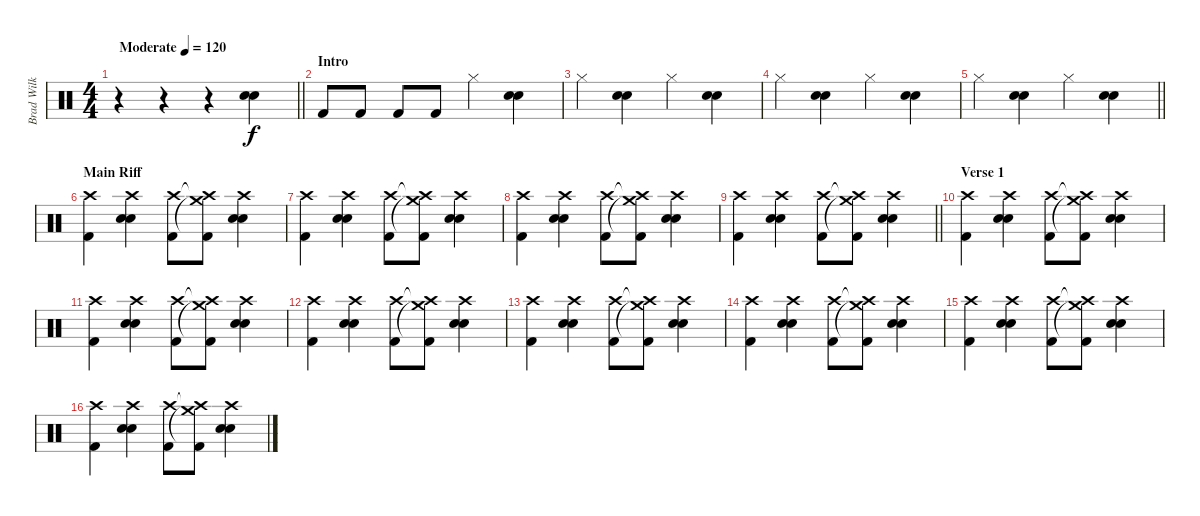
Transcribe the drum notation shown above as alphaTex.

\track ("Brad Wilk" "Brad Wilk") {instrument percussion}
\staff {score}
\articulation defaults
\ts (4 4)
\tempo (120 "Moderate")
\clef neutral
\barLineRight lightlight
\ks c
r.4{dy f} r.4 r.4 ("Electric Snare (hit)" "Snare (hit) 2").4 |
\section ("" "Intro")
"Kick (hit) 2".8 "Kick (hit) 2".8 "Kick (hit) 2".8 "Kick (hit) 2".8 "Hi-Hat (closed)".4 ("Electric Snare (hit)" "Snare (hit) 2").4 |
"Hi-Hat (closed)".4 ("Electric Snare (hit)" "Snare (hit) 2").4 "Hi-Hat (closed)".4 ("Electric Snare (hit)" "Snare (hit) 2").4 |
"Hi-Hat (closed)".4 ("Electric Snare (hit)" "Snare (hit) 2").4 "Hi-Hat (closed)".4 ("Electric Snare (hit)" "Snare (hit) 2").4 |
\barLineRight lightlight "Hi-Hat (closed)".4
("Electric Snare (hit)" "Snare (hit) 2").4 "Hi-Hat (closed)".4 ("Electric Snare (hit)" "Snare (hit) 2").4 |
\section ("" "Main Riff")
("Crash high (hit)" "Kick (hit) 2").4 ("Electric Snare (hit)" "Snare (hit) 2" "Crash high (hit)").4 ("Crash high (hit)" "Kick (hit) 2").8 ("Crash high (hit)"{t} "Crash medium (hit)"{t} "Kick (hit) 2").8 ("Electric Snare (hit)" "Snare (hit) 2" "Crash high (hit)").4 |
("Crash high (hit)" "Kick (hit) 2").4 ("Electric Snare (hit)" "Snare (hit) 2" "Crash high (hit)").4 ("Crash high (hit)" "Kick (hit) 2").8 ("Crash high (hit)"{t} "Crash medium (hit)"{t} "Kick (hit) 2").8 ("Electric Snare (hit)" "Snare (hit) 2" "Crash high (hit)").4 |
("Crash high (hit)" "Kick (hit) 2").4 ("Electric Snare (hit)" "Snare (hit) 2" "Crash high (hit)").4 ("Crash high (hit)" "Kick (hit) 2").8 ("Crash high (hit)"{t} "Crash medium (hit)"{t} "Kick (hit) 2").8 ("Electric Snare (hit)" "Snare (hit) 2" "Crash high (hit)").4 |
\barLineRight lightlight
("Crash high (hit)" "Kick (hit) 2").4 ("Electric Snare (hit)" "Snare (hit) 2" "Crash high (hit)").4 ("Crash high (hit)" "Kick (hit) 2").8 ("Crash high (hit)"{t} "Crash medium (hit)"{t} "Kick (hit) 2").8 ("Electric Snare (hit)" "Snare (hit) 2" "Crash high (hit)").4 |
\section ("" "Verse 1")
("Crash high (hit)" "Kick (hit) 2").4 ("Electric Snare (hit)" "Snare (hit) 2" "Crash high (hit)").4 ("Crash high (hit)" "Kick (hit) 2").8 ("Crash high (hit)"{t} "Crash medium (hit)"{t} "Kick (hit) 2").8 ("Electric Snare (hit)" "Snare (hit) 2" "Crash high (hit)").4 |
("Crash high (hit)" "Kick (hit) 2").4 ("Electric Snare (hit)" "Snare (hit) 2" "Crash high (hit)").4 ("Crash high (hit)" "Kick (hit) 2").8 ("Crash high (hit)"{t} "Crash medium (hit)"{t} "Kick (hit) 2").8 ("Electric Snare (hit)" "Snare (hit) 2" "Crash high (hit)").4 |
("Crash high (hit)" "Kick (hit) 2").4 ("Electric Snare (hit)" "Snare (hit) 2" "Crash high (hit)").4 ("Crash high (hit)" "Kick (hit) 2").8 ("Crash high (hit)"{t} "Crash medium (hit)"{t} "Kick (hit) 2").8 ("Electric Snare (hit)" "Snare (hit) 2" "Crash high (hit)").4 |
("Crash high (hit)" "Kick (hit) 2").4 ("Electric Snare (hit)" "Snare (hit) 2" "Crash high (hit)").4 ("Crash high (hit)" "Kick (hit) 2").8 ("Crash high (hit)"{t} "Crash medium (hit)"{t} "Kick (hit) 2").8 ("Electric Snare (hit)" "Snare (hit) 2" "Crash high (hit)").4 |
("Crash high (hit)" "Kick (hit) 2").4 ("Electric Snare (hit)" "Snare (hit) 2" "Crash high (hit)").4 ("Crash high (hit)" "Kick (hit) 2").8 ("Crash high (hit)"{t} "Crash medium (hit)"{t} "Kick (hit) 2").8 ("Electric Snare (hit)" "Snare (hit) 2" "Crash high (hit)").4 |
("Crash high (hit)" "Kick (hit) 2").4 ("Electric Snare (hit)" "Snare (hit) 2" "Crash high (hit)").4 ("Crash high (hit)" "Kick (hit) 2").8 ("Crash high (hit)"{t} "Crash medium (hit)"{t} "Kick (hit) 2").8 ("Electric Snare (hit)" "Snare (hit) 2" "Crash high (hit)").4 |
("Crash high (hit)" "Kick (hit) 2").4 ("Electric Snare (hit)" "Snare (hit) 2" "Crash high (hit)").4 ("Crash high (hit)" "Kick (hit) 2").8 ("Crash high (hit)"{t} "Crash medium (hit)"{t} "Kick (hit) 2").8 ("Electric Snare (hit)" "Snare (hit) 2" "Crash high (hit)").4
